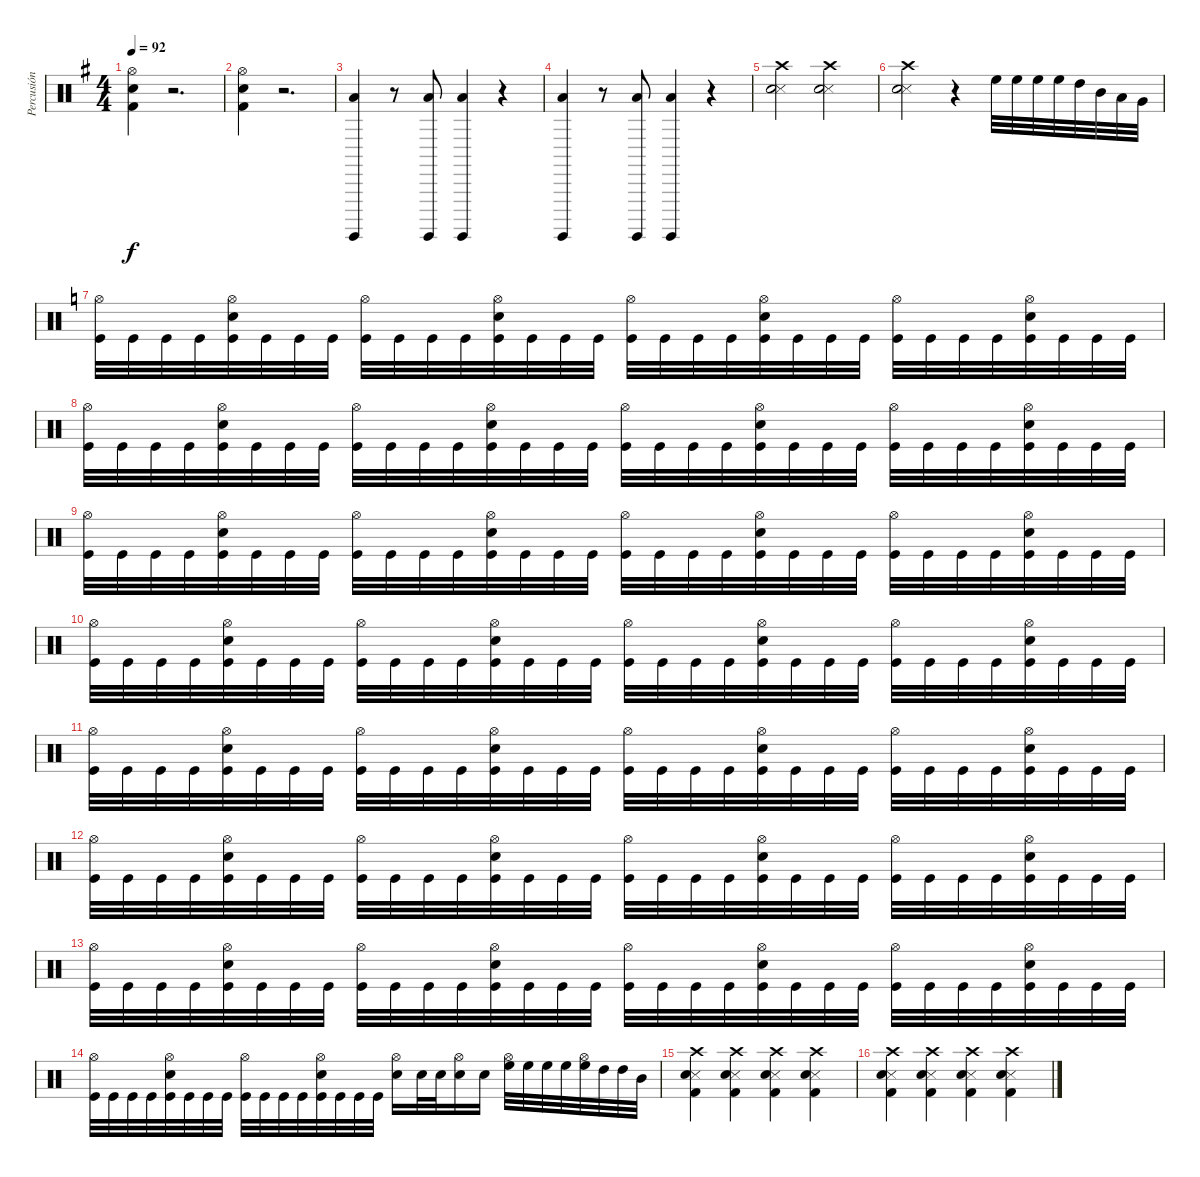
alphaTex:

\track ("Percusión" "Percusión") {instrument percussion}
\staff {score}
\articulation defaults
\ts (4 4)
\tempo 92
\clef neutral
\ks g
("Kick (hit) 2" "Snare (hit) 2" "Hi-Hat (open)").4{dy f} r.2{d} |
("Kick (hit) 2" "Snare (hit) 2" "Hi-Hat (open)").4 r.2{d} |
("Surdo (hit)" "Low Floor Tom (hit)").4 r.8 ("Surdo (hit)" "Low Floor Tom (hit)").8 ("Surdo (hit)" "Low Floor Tom (hit)").4 r.4 |
("Surdo (hit)" "Low Floor Tom (hit)").4 r.8 ("Surdo (hit)" "Low Floor Tom (hit)").8 ("Surdo (hit)" "Low Floor Tom (hit)").4 r.4 |
("Snare (side stick) 3" "Snare (hit) 2" "Crash high (hit)").2 ("Snare (side stick) 3" "Snare (hit) 2" "Crash high (hit)").2 |
("Snare (side stick) 3" "Snare (hit) 2" "Crash high (hit)").2 r.4 "High Floor Tom (hit)".32 "High Floor Tom (hit)".32 "High Floor Tom (hit)".32 "High Floor Tom (hit)".32 "High Tom (hit)".32 "Mid Tom (hit)".32 "Low Tom (hit)".32 "Very Low Tom (hit)".32 |
\ks c
("Hi-Hat (open)" "Kick (hit)").32 "Kick (hit)".32 "Kick (hit)".32 "Kick (hit)".32 ("Snare (hit) 2" "Hi-Hat (open)" "Kick (hit)").32 "Kick (hit)".32 "Kick (hit)".32 "Kick (hit)".32 ("Hi-Hat (open)" "Kick (hit)").32 "Kick (hit)".32 "Kick (hit)".32 "Kick (hit)".32 ("Snare (hit) 2" "Hi-Hat (open)" "Kick (hit)").32 "Kick (hit)".32 "Kick (hit)".32 "Kick (hit)".32 ("Hi-Hat (open)" "Kick (hit)").32 "Kick (hit)".32 "Kick (hit)".32 "Kick (hit)".32 ("Snare (hit) 2" "Hi-Hat (open)" "Kick (hit)").32 "Kick (hit)".32 "Kick (hit)".32 "Kick (hit)".32 ("Hi-Hat (open)" "Kick (hit)").32 "Kick (hit)".32 "Kick (hit)".32 "Kick (hit)".32 ("Snare (hit) 2" "Hi-Hat (open)" "Kick (hit)").32 "Kick (hit)".32 "Kick (hit)".32 "Kick (hit)".32 |
("Hi-Hat (open)" "Kick (hit)").32 "Kick (hit)".32 "Kick (hit)".32 "Kick (hit)".32 ("Snare (hit) 2" "Hi-Hat (open)" "Kick (hit)").32 "Kick (hit)".32 "Kick (hit)".32 "Kick (hit)".32 ("Hi-Hat (open)" "Kick (hit)").32 "Kick (hit)".32 "Kick (hit)".32 "Kick (hit)".32 ("Snare (hit) 2" "Hi-Hat (open)" "Kick (hit)").32 "Kick (hit)".32 "Kick (hit)".32 "Kick (hit)".32 ("Hi-Hat (open)" "Kick (hit)").32 "Kick (hit)".32 "Kick (hit)".32 "Kick (hit)".32 ("Snare (hit) 2" "Hi-Hat (open)" "Kick (hit)").32 "Kick (hit)".32 "Kick (hit)".32 "Kick (hit)".32 ("Hi-Hat (open)" "Kick (hit)").32 "Kick (hit)".32 "Kick (hit)".32 "Kick (hit)".32 ("Snare (hit) 2" "Hi-Hat (open)" "Kick (hit)").32 "Kick (hit)".32 "Kick (hit)".32 "Kick (hit)".32 |
("Hi-Hat (open)" "Kick (hit)").32 "Kick (hit)".32 "Kick (hit)".32 "Kick (hit)".32 ("Snare (hit) 2" "Hi-Hat (open)" "Kick (hit)").32 "Kick (hit)".32 "Kick (hit)".32 "Kick (hit)".32 ("Hi-Hat (open)" "Kick (hit)").32 "Kick (hit)".32 "Kick (hit)".32 "Kick (hit)".32 ("Snare (hit) 2" "Hi-Hat (open)" "Kick (hit)").32 "Kick (hit)".32 "Kick (hit)".32 "Kick (hit)".32 ("Hi-Hat (open)" "Kick (hit)").32 "Kick (hit)".32 "Kick (hit)".32 "Kick (hit)".32 ("Snare (hit) 2" "Hi-Hat (open)" "Kick (hit)").32 "Kick (hit)".32 "Kick (hit)".32 "Kick (hit)".32 ("Hi-Hat (open)" "Kick (hit)").32 "Kick (hit)".32 "Kick (hit)".32 "Kick (hit)".32 ("Snare (hit) 2" "Hi-Hat (open)" "Kick (hit)").32 "Kick (hit)".32 "Kick (hit)".32 "Kick (hit)".32 |
("Hi-Hat (open)" "Kick (hit)").32 "Kick (hit)".32 "Kick (hit)".32 "Kick (hit)".32 ("Snare (hit) 2" "Hi-Hat (open)" "Kick (hit)").32 "Kick (hit)".32 "Kick (hit)".32 "Kick (hit)".32 ("Hi-Hat (open)" "Kick (hit)").32 "Kick (hit)".32 "Kick (hit)".32 "Kick (hit)".32 ("Snare (hit) 2" "Hi-Hat (open)" "Kick (hit)").32 "Kick (hit)".32 "Kick (hit)".32 "Kick (hit)".32 ("Hi-Hat (open)" "Kick (hit)").32 "Kick (hit)".32 "Kick (hit)".32 "Kick (hit)".32 ("Snare (hit) 2" "Hi-Hat (open)" "Kick (hit)").32 "Kick (hit)".32 "Kick (hit)".32 "Kick (hit)".32 ("Hi-Hat (open)" "Kick (hit)").32 "Kick (hit)".32 "Kick (hit)".32 "Kick (hit)".32 ("Snare (hit) 2" "Hi-Hat (open)" "Kick (hit)").32 "Kick (hit)".32 "Kick (hit)".32 "Kick (hit)".32 |
("Hi-Hat (open)" "Kick (hit)").32 "Kick (hit)".32 "Kick (hit)".32 "Kick (hit)".32 ("Snare (hit) 2" "Hi-Hat (open)" "Kick (hit)").32 "Kick (hit)".32 "Kick (hit)".32 "Kick (hit)".32 ("Hi-Hat (open)" "Kick (hit)").32 "Kick (hit)".32 "Kick (hit)".32 "Kick (hit)".32 ("Snare (hit) 2" "Hi-Hat (open)" "Kick (hit)").32 "Kick (hit)".32 "Kick (hit)".32 "Kick (hit)".32 ("Hi-Hat (open)" "Kick (hit)").32 "Kick (hit)".32 "Kick (hit)".32 "Kick (hit)".32 ("Snare (hit) 2" "Hi-Hat (open)" "Kick (hit)").32 "Kick (hit)".32 "Kick (hit)".32 "Kick (hit)".32 ("Hi-Hat (open)" "Kick (hit)").32 "Kick (hit)".32 "Kick (hit)".32 "Kick (hit)".32 ("Snare (hit) 2" "Hi-Hat (open)" "Kick (hit)").32 "Kick (hit)".32 "Kick (hit)".32 "Kick (hit)".32 |
("Hi-Hat (open)" "Kick (hit)").32 "Kick (hit)".32 "Kick (hit)".32 "Kick (hit)".32 ("Snare (hit) 2" "Hi-Hat (open)" "Kick (hit)").32 "Kick (hit)".32 "Kick (hit)".32 "Kick (hit)".32 ("Hi-Hat (open)" "Kick (hit)").32 "Kick (hit)".32 "Kick (hit)".32 "Kick (hit)".32 ("Snare (hit) 2" "Hi-Hat (open)" "Kick (hit)").32 "Kick (hit)".32 "Kick (hit)".32 "Kick (hit)".32 ("Hi-Hat (open)" "Kick (hit)").32 "Kick (hit)".32 "Kick (hit)".32 "Kick (hit)".32 ("Snare (hit) 2" "Hi-Hat (open)" "Kick (hit)").32 "Kick (hit)".32 "Kick (hit)".32 "Kick (hit)".32 ("Hi-Hat (open)" "Kick (hit)").32 "Kick (hit)".32 "Kick (hit)".32 "Kick (hit)".32 ("Snare (hit) 2" "Hi-Hat (open)" "Kick (hit)").32 "Kick (hit)".32 "Kick (hit)".32 "Kick (hit)".32 |
("Hi-Hat (open)" "Kick (hit)").32 "Kick (hit)".32 "Kick (hit)".32 "Kick (hit)".32 ("Snare (hit) 2" "Hi-Hat (open)" "Kick (hit)").32 "Kick (hit)".32 "Kick (hit)".32 "Kick (hit)".32 ("Hi-Hat (open)" "Kick (hit)").32 "Kick (hit)".32 "Kick (hit)".32 "Kick (hit)".32 ("Snare (hit) 2" "Hi-Hat (open)" "Kick (hit)").32 "Kick (hit)".32 "Kick (hit)".32 "Kick (hit)".32 ("Hi-Hat (open)" "Kick (hit)").32 "Kick (hit)".32 "Kick (hit)".32 "Kick (hit)".32 ("Snare (hit) 2" "Hi-Hat (open)" "Kick (hit)").32 "Kick (hit)".32 "Kick (hit)".32 "Kick (hit)".32 ("Hi-Hat (open)" "Kick (hit)").32 "Kick (hit)".32 "Kick (hit)".32 "Kick (hit)".32 ("Snare (hit) 2" "Hi-Hat (open)" "Kick (hit)").32 "Kick (hit)".32 "Kick (hit)".32 "Kick (hit)".32 |
("Hi-Hat (open)" "Kick (hit)").32 "Kick (hit)".32 "Kick (hit)".32 "Kick (hit)".32 ("Snare (hit) 2" "Hi-Hat (open)" "Kick (hit)").32 "Kick (hit)".32 "Kick (hit)".32 "Kick (hit)".32 ("Hi-Hat (open)" "Kick (hit)").32 "Kick (hit)".32 "Kick (hit)".32 "Kick (hit)".32 ("Snare (hit) 2" "Hi-Hat (open)" "Kick (hit)").32 "Kick (hit)".32 "Kick (hit)".32 "Kick (hit)".32 ("Snare (hit) 2" "Hi-Hat (open)").16 "Snare (hit) 2".32 "Snare (hit) 2".32 ("Snare (hit) 2" "Hi-Hat (open)").16 "Snare (hit) 2".16 ("High Floor Tom (hit)" "Hi-Hat (open)").32 "High Floor Tom (hit)".32 "High Floor Tom (hit)".32 "High Floor Tom (hit)".32 ("High Floor Tom (hit)" "Hi-Hat (open)").32 "High Tom (hit)".32 "High Tom (hit)".32 "Mid Tom (hit)".32 |
("Snare (side stick) 3" "Snare (hit) 2" "Crash high (hit)" "Kick (hit) 2").4 ("Snare (side stick) 3" "Snare (hit) 2" "Crash high (hit)" "Kick (hit) 2").4 ("Snare (side stick) 3" "Snare (hit) 2" "Crash high (hit)" "Kick (hit) 2").4 ("Snare (side stick) 3" "Snare (hit) 2" "Crash high (hit)" "Kick (hit) 2").4 |
("Snare (side stick) 3" "Snare (hit) 2" "Crash high (hit)" "Kick (hit) 2").4 ("Snare (side stick) 3" "Snare (hit) 2" "Crash high (hit)" "Kick (hit) 2").4 ("Snare (side stick) 3" "Snare (hit) 2" "Crash high (hit)" "Kick (hit) 2").4 ("Snare (side stick) 3" "Snare (hit) 2" "Crash high (hit)" "Kick (hit) 2").4
